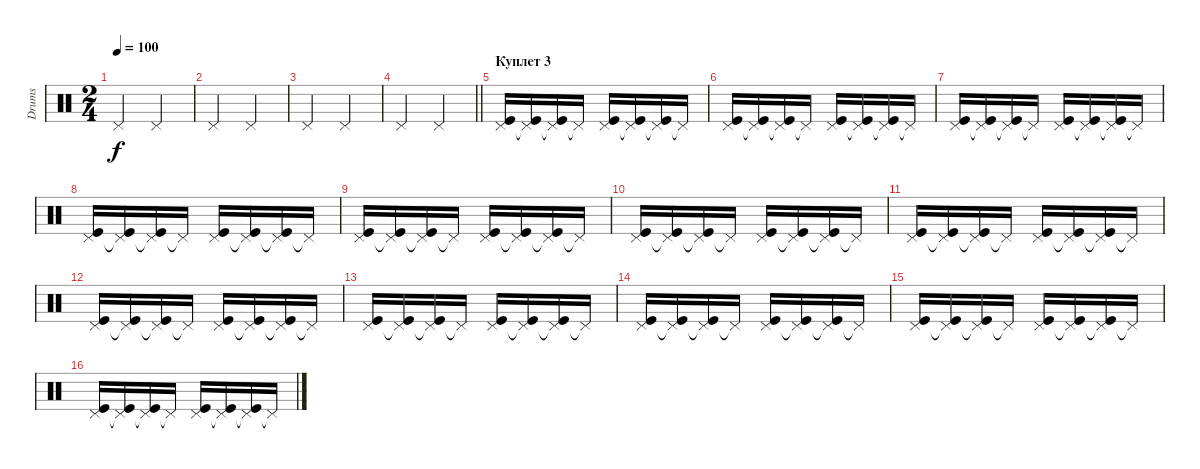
\track ("Drums" "Drums") {instrument percussion}
\staff {score}
\articulation defaults
\ts (2 4)
\tempo 100
\clef neutral
\ks c "Pedal Hi-Hat (hit)".4{dy f} "Pedal Hi-Hat (hit)".4
|
"Pedal Hi-Hat (hit)".4 "Pedal Hi-Hat (hit)".4 |
"Pedal Hi-Hat (hit)".4 "Pedal Hi-Hat (hit)".4 |
\barLineRight lightlight "Pedal Hi-Hat (hit)".4 "Pedal Hi-Hat (hit)".4
|
\section ("" "Куплет 3")
("Pedal Hi-Hat (hit)" "Kick (hit)").16 ("Pedal Hi-Hat (hit)"{t} "Kick (hit)").16 ("Pedal Hi-Hat (hit)"{t} "Kick (hit)").16 "Pedal Hi-Hat (hit)"{t}.16 ("Pedal Hi-Hat (hit)" "Kick (hit)").16 ("Pedal Hi-Hat (hit)"{t} "Kick (hit)").16 ("Pedal Hi-Hat (hit)"{t} "Kick (hit)").16 "Pedal Hi-Hat (hit)"{t}.16 |
("Pedal Hi-Hat (hit)" "Kick (hit)").16 ("Pedal Hi-Hat (hit)"{t} "Kick (hit)").16 ("Pedal Hi-Hat (hit)"{t} "Kick (hit)").16 "Pedal Hi-Hat (hit)"{t}.16 ("Pedal Hi-Hat (hit)" "Kick (hit)").16 ("Pedal Hi-Hat (hit)"{t} "Kick (hit)").16 ("Pedal Hi-Hat (hit)"{t} "Kick (hit)").16 "Pedal Hi-Hat (hit)"{t}.16 |
("Pedal Hi-Hat (hit)" "Kick (hit)").16 ("Pedal Hi-Hat (hit)"{t} "Kick (hit)").16 ("Pedal Hi-Hat (hit)"{t} "Kick (hit)").16 "Pedal Hi-Hat (hit)"{t}.16 ("Pedal Hi-Hat (hit)" "Kick (hit)").16 ("Pedal Hi-Hat (hit)"{t} "Kick (hit)").16 ("Pedal Hi-Hat (hit)"{t} "Kick (hit)").16 "Pedal Hi-Hat (hit)"{t}.16 |
("Pedal Hi-Hat (hit)" "Kick (hit)").16 ("Pedal Hi-Hat (hit)"{t} "Kick (hit)").16 ("Pedal Hi-Hat (hit)"{t} "Kick (hit)").16 "Pedal Hi-Hat (hit)"{t}.16 ("Pedal Hi-Hat (hit)" "Kick (hit)").16 ("Pedal Hi-Hat (hit)"{t} "Kick (hit)").16 ("Pedal Hi-Hat (hit)"{t} "Kick (hit)").16 "Pedal Hi-Hat (hit)"{t}.16 |
("Pedal Hi-Hat (hit)" "Kick (hit)").16 ("Pedal Hi-Hat (hit)"{t} "Kick (hit)").16 ("Pedal Hi-Hat (hit)"{t} "Kick (hit)").16 "Pedal Hi-Hat (hit)"{t}.16 ("Pedal Hi-Hat (hit)" "Kick (hit)").16 ("Pedal Hi-Hat (hit)"{t} "Kick (hit)").16 ("Pedal Hi-Hat (hit)"{t} "Kick (hit)").16 "Pedal Hi-Hat (hit)"{t}.16 |
("Pedal Hi-Hat (hit)" "Kick (hit)").16 ("Pedal Hi-Hat (hit)"{t} "Kick (hit)").16 ("Pedal Hi-Hat (hit)"{t} "Kick (hit)").16 "Pedal Hi-Hat (hit)"{t}.16 ("Pedal Hi-Hat (hit)" "Kick (hit)").16 ("Pedal Hi-Hat (hit)"{t} "Kick (hit)").16 ("Pedal Hi-Hat (hit)"{t} "Kick (hit)").16 "Pedal Hi-Hat (hit)"{t}.16 |
("Pedal Hi-Hat (hit)" "Kick (hit)").16 ("Pedal Hi-Hat (hit)"{t} "Kick (hit)").16 ("Pedal Hi-Hat (hit)"{t} "Kick (hit)").16 "Pedal Hi-Hat (hit)"{t}.16 ("Pedal Hi-Hat (hit)" "Kick (hit)").16 ("Pedal Hi-Hat (hit)"{t} "Kick (hit)").16 ("Pedal Hi-Hat (hit)"{t} "Kick (hit)").16 "Pedal Hi-Hat (hit)"{t}.16 |
("Pedal Hi-Hat (hit)" "Kick (hit)").16 ("Pedal Hi-Hat (hit)"{t} "Kick (hit)").16 ("Pedal Hi-Hat (hit)"{t} "Kick (hit)").16 "Pedal Hi-Hat (hit)"{t}.16 ("Pedal Hi-Hat (hit)" "Kick (hit)").16 ("Pedal Hi-Hat (hit)"{t} "Kick (hit)").16 ("Pedal Hi-Hat (hit)"{t} "Kick (hit)").16 "Pedal Hi-Hat (hit)"{t}.16 |
("Pedal Hi-Hat (hit)" "Kick (hit)").16 ("Pedal Hi-Hat (hit)"{t} "Kick (hit)").16 ("Pedal Hi-Hat (hit)"{t} "Kick (hit)").16 "Pedal Hi-Hat (hit)"{t}.16 ("Pedal Hi-Hat (hit)" "Kick (hit)").16 ("Pedal Hi-Hat (hit)"{t} "Kick (hit)").16 ("Pedal Hi-Hat (hit)"{t} "Kick (hit)").16 "Pedal Hi-Hat (hit)"{t}.16 |
("Pedal Hi-Hat (hit)" "Kick (hit)").16 ("Pedal Hi-Hat (hit)"{t} "Kick (hit)").16 ("Pedal Hi-Hat (hit)"{t} "Kick (hit)").16 "Pedal Hi-Hat (hit)"{t}.16 ("Pedal Hi-Hat (hit)" "Kick (hit)").16 ("Pedal Hi-Hat (hit)"{t} "Kick (hit)").16 ("Pedal Hi-Hat (hit)"{t} "Kick (hit)").16 "Pedal Hi-Hat (hit)"{t}.16 |
("Pedal Hi-Hat (hit)" "Kick (hit)").16 ("Pedal Hi-Hat (hit)"{t} "Kick (hit)").16 ("Pedal Hi-Hat (hit)"{t} "Kick (hit)").16 "Pedal Hi-Hat (hit)"{t}.16 ("Pedal Hi-Hat (hit)" "Kick (hit)").16 ("Pedal Hi-Hat (hit)"{t} "Kick (hit)").16 ("Pedal Hi-Hat (hit)"{t} "Kick (hit)").16 "Pedal Hi-Hat (hit)"{t}.16 |
("Pedal Hi-Hat (hit)" "Kick (hit)").16 ("Pedal Hi-Hat (hit)"{t} "Kick (hit)").16 ("Pedal Hi-Hat (hit)"{t} "Kick (hit)").16 "Pedal Hi-Hat (hit)"{t}.16 ("Pedal Hi-Hat (hit)" "Kick (hit)").16 ("Pedal Hi-Hat (hit)"{t} "Kick (hit)").16 ("Pedal Hi-Hat (hit)"{t} "Kick (hit)").16 "Pedal Hi-Hat (hit)"{t}.16
